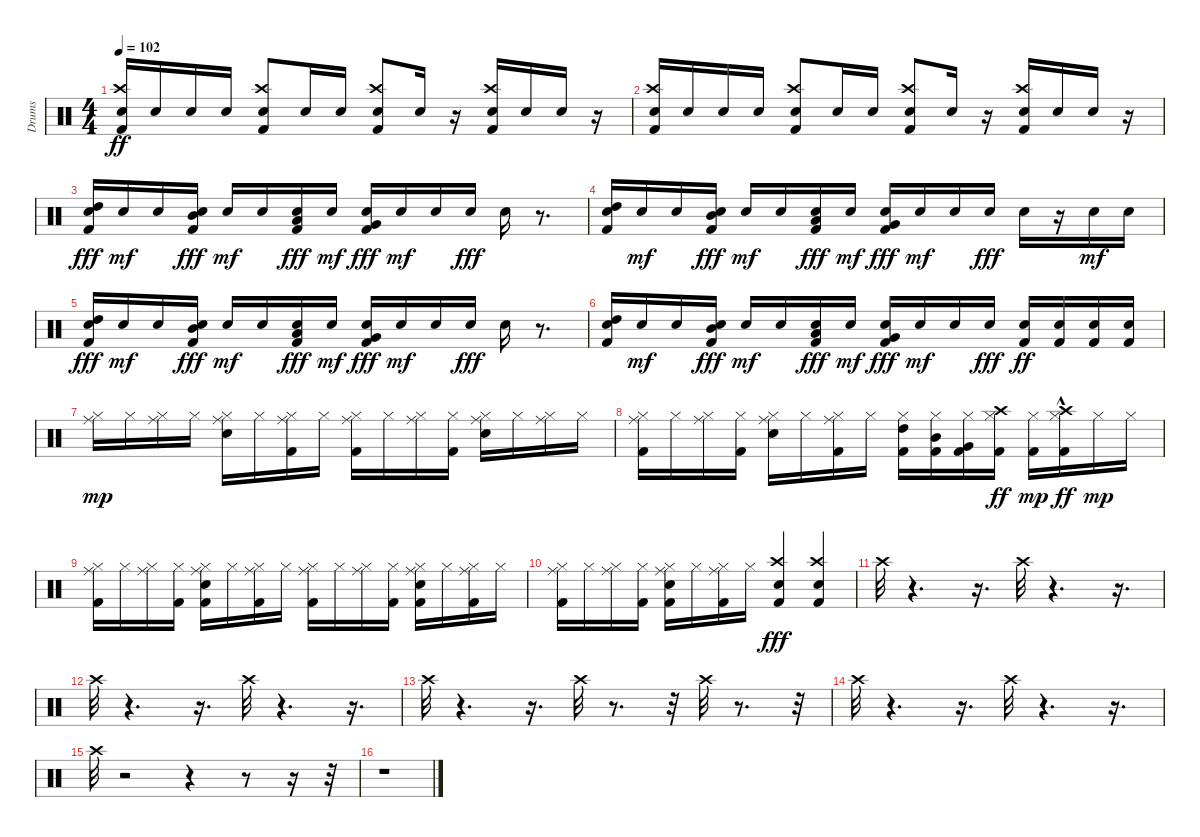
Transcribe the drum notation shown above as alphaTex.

\track ("Drums" "Drums") {instrument percussion}
\staff {score}
\articulation defaults
\ts (4 4)
\tempo 102
\clef neutral
\ks c
("Kick (hit) 2" "Crash high (hit)" "Snare (hit) 2").16{dy ff} "Snare (hit) 2".16 "Snare (hit) 2".16 "Snare (hit) 2".16 ("Kick (hit) 2" "Crash high (hit)" "Snare (hit) 2").8 "Snare (hit) 2".16 "Snare (hit) 2".16 ("Kick (hit) 2" "Crash high (hit)" "Snare (hit) 2").8 "Snare (hit) 2".16 r.16 ("Kick (hit) 2" "Crash high (hit)" "Snare (hit) 2").16 "Snare (hit) 2".16 "Snare (hit) 2".16 r.16 |
("Kick (hit) 2" "Crash high (hit)" "Snare (hit) 2").16 "Snare (hit) 2".16 "Snare (hit) 2".16 "Snare (hit) 2".16 ("Kick (hit) 2" "Crash high (hit)" "Snare (hit) 2").8 "Snare (hit) 2".16 "Snare (hit) 2".16 ("Kick (hit) 2" "Crash high (hit)" "Snare (hit) 2").8 "Snare (hit) 2".16 r.16 ("Kick (hit) 2" "Crash high (hit)" "Snare (hit) 2").16 "Snare (hit) 2".16 "Snare (hit) 2".16 r.16 |
("Snare (hit) 2" "High Tom (hit)" "Kick (hit) 2").16{dy fff} "Snare (hit) 2".16{dy mf} "Snare (hit) 2".16 ("Snare (hit) 2" "Mid Tom (hit)" "Kick (hit) 2").16{dy fff} "Snare (hit) 2".16{dy mf} "Snare (hit) 2".16 ("Snare (hit) 2" "Low Tom (hit)" "Kick (hit) 2").16{dy fff} "Snare (hit) 2".16{dy mf} ("Snare (hit) 2" "Very Low Tom (hit)" "Kick (hit) 2").16{dy fff} "Snare (hit) 2".16{dy mf} "Snare (hit) 2".16 "Snare (hit) 2".16{dy fff} "Snare (hit) 2".16 r.8{d} |
("Snare (hit) 2" "High Tom (hit)" "Kick (hit) 2").16 "Snare (hit) 2".16{dy mf} "Snare (hit) 2".16 ("Snare (hit) 2" "Mid Tom (hit)" "Kick (hit) 2").16{dy fff} "Snare (hit) 2".16{dy mf} "Snare (hit) 2".16 ("Snare (hit) 2" "Low Tom (hit)" "Kick (hit) 2").16{dy fff} "Snare (hit) 2".16{dy mf} ("Snare (hit) 2" "Very Low Tom (hit)" "Kick (hit) 2").16{dy fff} "Snare (hit) 2".16{dy mf} "Snare (hit) 2".16 "Snare (hit) 2".16{dy fff} "Snare (hit) 2".16 r.16 "Snare (hit) 2".16{dy mf} "Snare (hit) 2".16 |
("Snare (hit) 2" "High Tom (hit)" "Kick (hit) 2").16{dy fff} "Snare (hit) 2".16{dy mf} "Snare (hit) 2".16 ("Snare (hit) 2" "Mid Tom (hit)" "Kick (hit) 2").16{dy fff} "Snare (hit) 2".16{dy mf} "Snare (hit) 2".16 ("Snare (hit) 2" "Low Tom (hit)" "Kick (hit) 2").16{dy fff} "Snare (hit) 2".16{dy mf} ("Snare (hit) 2" "Very Low Tom (hit)" "Kick (hit) 2").16{dy fff} "Snare (hit) 2".16{dy mf} "Snare (hit) 2".16 "Snare (hit) 2".16{dy fff} "Snare (hit) 2".16 r.8{d} |
("Snare (hit) 2" "High Tom (hit)" "Kick (hit) 2").16 "Snare (hit) 2".16{dy mf} "Snare (hit) 2".16 ("Snare (hit) 2" "Mid Tom (hit)" "Kick (hit) 2").16{dy fff} "Snare (hit) 2".16{dy mf} "Snare (hit) 2".16 ("Snare (hit) 2" "Low Tom (hit)" "Kick (hit) 2").16{dy fff} "Snare (hit) 2".16{dy mf} ("Snare (hit) 2" "Very Low Tom (hit)" "Kick (hit) 2").16{dy fff} "Snare (hit) 2".16{dy mf} "Snare (hit) 2".16 "Snare (hit) 2".16{dy fff} ("Snare (hit) 2" "Kick (hit) 2").16{dy ff} ("Snare (hit) 2" "Kick (hit) 2").16 ("Snare (hit) 2" "Kick (hit) 2").16 ("Snare (hit) 2" "Kick (hit) 2").16 |
("Ride (middle)" "Hi-Hat (closed)").16{dy mp} "Hi-Hat (closed)".16 ("Ride (middle)" "Hi-Hat (closed)").16 "Hi-Hat (closed)".16 ("Snare (hit) 2" "Ride (middle)" "Hi-Hat (closed)").16 "Hi-Hat (closed)".16 ("Ride (middle)" "Kick (hit) 2" "Hi-Hat (closed)").16 "Hi-Hat (closed)".16 ("Ride (middle)" "Kick (hit) 2" "Hi-Hat (closed)").16 "Hi-Hat (closed)".16 ("Ride (middle)" "Hi-Hat (closed)").16 ("Kick (hit) 2" "Hi-Hat (closed)").16 ("Ride (middle)" "Snare (hit) 2" "Hi-Hat (closed)").16 "Hi-Hat (closed)".16 ("Ride (middle)" "Hi-Hat (closed)").16 "Hi-Hat (closed)".16 |
("Ride (middle)" "Kick (hit) 2" "Hi-Hat (closed)").16 "Hi-Hat (closed)".16 ("Ride (middle)" "Hi-Hat (closed)").16 ("Kick (hit) 2" "Hi-Hat (closed)").16 ("Ride (middle)" "Snare (hit) 2" "Hi-Hat (closed)").16 "Hi-Hat (closed)".16 ("Ride (middle)" "Kick (hit) 2" "Hi-Hat (closed)").16 "Hi-Hat (closed)".16 ("Kick (hit) 2" "High Tom (hit)" "Hi-Hat (closed)").16 ("Kick (hit) 2" "Mid Tom (hit)" "Hi-Hat (closed)").16 ("Kick (hit) 2" "Very Low Tom (hit)" "Hi-Hat (closed)").16 ("Kick (hit) 2" "Hi-Hat (closed)" "Crash high (hit)").16{dy ff} ("Kick (hit) 2" "Hi-Hat (closed)").16{dy mp} ("Kick (hit) 2"{hac} "Hi-Hat (closed)" "Crash high (hit)"{hac}).16{dy ff} "Hi-Hat (closed)".16{dy mp} "Hi-Hat (closed)".16 |
("Kick (hit) 2" "Ride (middle)" "Hi-Hat (closed)").16 "Hi-Hat (closed)".16 ("Ride (middle)" "Hi-Hat (closed)").16 ("Kick (hit) 2" "Hi-Hat (closed)").16 ("Snare (hit) 2" "Ride (middle)" "Kick (hit) 2" "Hi-Hat (closed)").16 "Hi-Hat (closed)".16 ("Ride (middle)" "Kick (hit) 2" "Hi-Hat (closed)").16 "Hi-Hat (closed)".16 ("Ride (middle)" "Kick (hit) 2" "Hi-Hat (closed)").16 "Hi-Hat (closed)".16 ("Ride (middle)" "Hi-Hat (closed)").16 ("Kick (hit) 2" "Hi-Hat (closed)").16 ("Ride (middle)" "Snare (hit) 2" "Kick (hit) 2" "Hi-Hat (closed)").16 "Hi-Hat (closed)".16 ("Ride (middle)" "Kick (hit) 2" "Hi-Hat (closed)").16 "Hi-Hat (closed)".16 |
("Ride (middle)" "Kick (hit) 2" "Hi-Hat (closed)").16 "Hi-Hat (closed)".16 ("Ride (middle)" "Hi-Hat (closed)").16 ("Kick (hit) 2" "Hi-Hat (closed)").16 ("Ride (middle)" "Snare (hit) 2" "Kick (hit) 2" "Hi-Hat (closed)").16 "Hi-Hat (closed)".16 ("Ride (middle)" "Kick (hit) 2" "Hi-Hat (closed)").16 "Hi-Hat (closed)".16 ("Crash high (hit)" "Kick (hit) 2" "Snare (hit) 2").4{dy fff} ("Crash high (hit)" "Kick (hit) 2" "Snare (hit) 2").4 |
"Crash high (hit)".32 r.4{d} r.16{d} "Crash high (hit)".32 r.4{d} r.16{d} |
"Crash high (hit)".32 r.4{d} r.16{d} "Crash high (hit)".32 r.4{d} r.16{d} |
"Crash high (hit)".32 r.4{d} r.16{d} "Crash high (hit)".32 r.8{d} r.32 "Crash high (hit)".32 r.8{d} r.32 |
"Crash high (hit)".32 r.4{d} r.16{d} "Crash high (hit)".32 r.4{d} r.16{d} |
"Crash high (hit)".32 r.2 r.4 r.8 r.16 r.32 |
r.1
